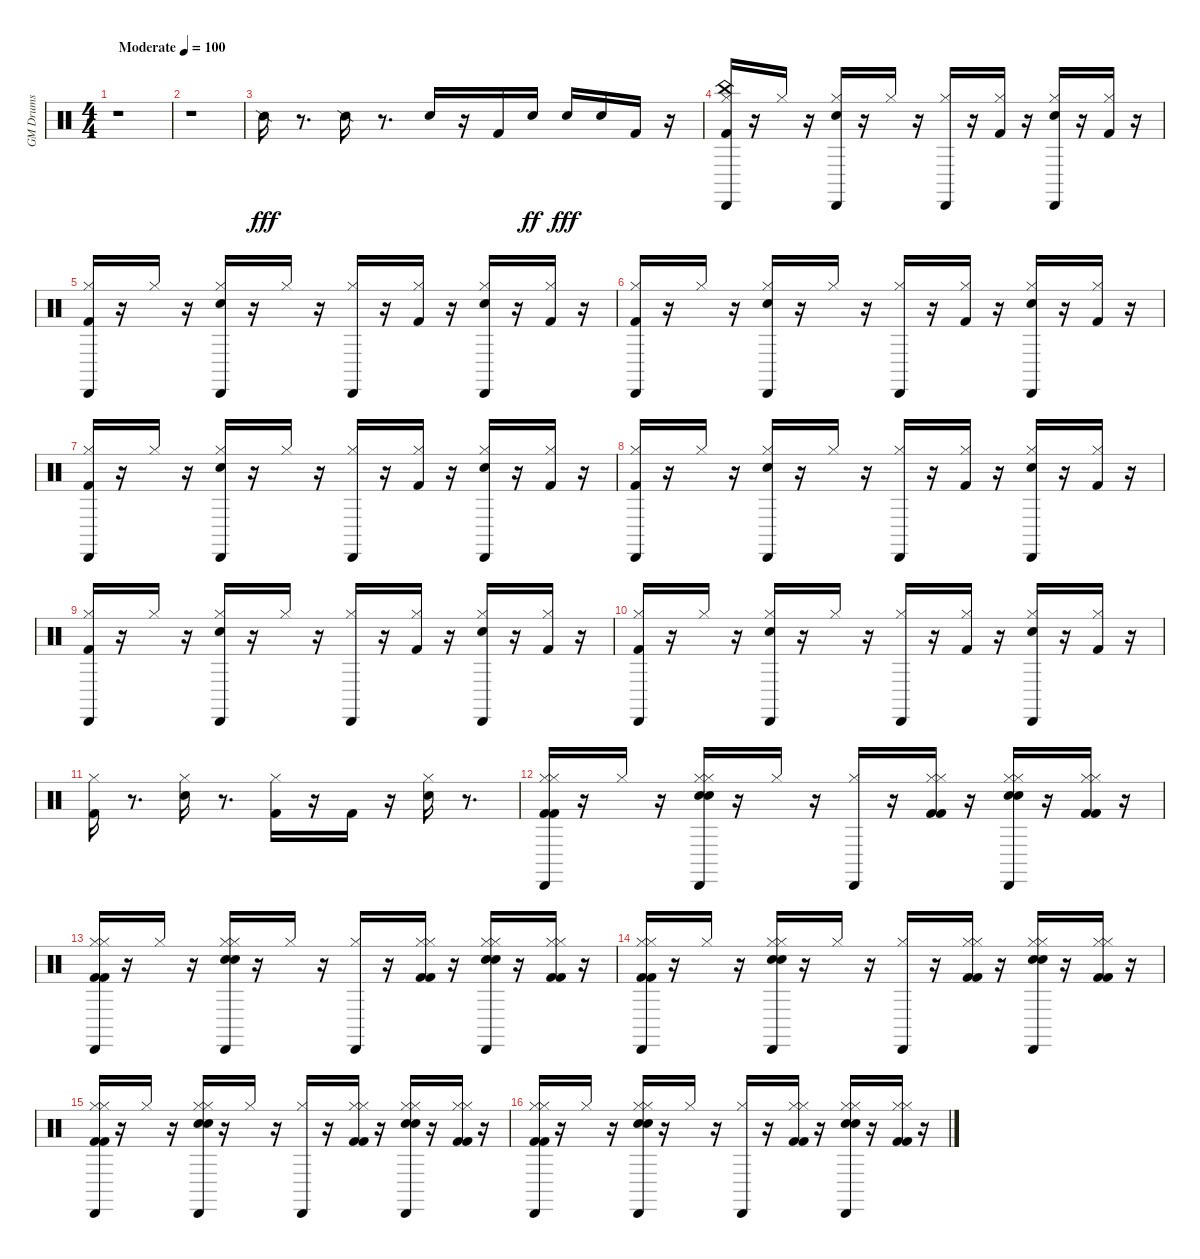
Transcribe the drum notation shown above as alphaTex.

\track ("GM Drums" "GM Drums") {instrument percussion}
\staff {score}
\articulation defaults
\ts (4 4)
\tempo (100 "Moderate")
\clef neutral
\ks c
r.1{dy fff} |
r.1 |
"Snare (side stick) 2".16 r.8{d} "Snare (side stick) 2".16 r.8{d} "Snare (hit) 2".16 r.16 "Kick (hit) 2".16 "Snare (hit) 2".16{dy ff} "Snare (hit) 2".16{dy fff} "Snare (hit) 2".16 "Kick (hit) 2".16 r.16 |
("Kick (hit) 2" "Hi-Hat (closed)" "China (hit)" "Cabasa (hit)").16 r.16 "Hi-Hat (closed)".16 r.16 ("Snare (hit) 2" "Hi-Hat (closed)" "Cabasa (hit)").16 r.16 "Hi-Hat (closed)".16 r.16 ("Hi-Hat (closed)" "Cabasa (hit)").16 r.16 ("Kick (hit) 2" "Hi-Hat (closed)").16 r.16 ("Snare (hit) 2" "Hi-Hat (closed)" "Cabasa (hit)").16 r.16 ("Kick (hit) 2" "Hi-Hat (closed)").16 r.16 |
("Kick (hit) 2" "Hi-Hat (closed)" "Cabasa (hit)").16 r.16 "Hi-Hat (closed)".16 r.16 ("Snare (hit) 2" "Hi-Hat (closed)" "Cabasa (hit)").16 r.16 "Hi-Hat (closed)".16 r.16 ("Hi-Hat (closed)" "Cabasa (hit)").16 r.16 ("Kick (hit) 2" "Hi-Hat (closed)").16 r.16 ("Snare (hit) 2" "Hi-Hat (closed)" "Cabasa (hit)").16 r.16 ("Kick (hit) 2" "Hi-Hat (closed)").16 r.16 |
("Kick (hit) 2" "Hi-Hat (closed)" "Cabasa (hit)").16 r.16 "Hi-Hat (closed)".16 r.16 ("Snare (hit) 2" "Hi-Hat (closed)" "Cabasa (hit)").16 r.16 "Hi-Hat (closed)".16 r.16 ("Hi-Hat (closed)" "Cabasa (hit)").16 r.16 ("Kick (hit) 2" "Hi-Hat (closed)").16 r.16 ("Snare (hit) 2" "Hi-Hat (closed)" "Cabasa (hit)").16 r.16 ("Kick (hit) 2" "Hi-Hat (closed)").16 r.16 |
("Kick (hit) 2" "Hi-Hat (closed)" "Cabasa (hit)").16 r.16 "Hi-Hat (closed)".16 r.16 ("Snare (hit) 2" "Hi-Hat (closed)" "Cabasa (hit)").16 r.16 "Hi-Hat (closed)".16 r.16 ("Hi-Hat (closed)" "Cabasa (hit)").16 r.16 ("Kick (hit) 2" "Hi-Hat (closed)").16 r.16 ("Snare (hit) 2" "Hi-Hat (closed)" "Cabasa (hit)").16 r.16 ("Kick (hit) 2" "Hi-Hat (closed)").16 r.16 |
("Kick (hit) 2" "Hi-Hat (closed)" "Cabasa (hit)").16 r.16 "Hi-Hat (closed)".16 r.16 ("Snare (hit) 2" "Hi-Hat (closed)" "Cabasa (hit)").16 r.16 "Hi-Hat (closed)".16 r.16 ("Hi-Hat (closed)" "Cabasa (hit)").16 r.16 ("Kick (hit) 2" "Hi-Hat (closed)").16 r.16 ("Snare (hit) 2" "Hi-Hat (closed)" "Cabasa (hit)").16 r.16 ("Kick (hit) 2" "Hi-Hat (closed)").16 r.16 |
("Kick (hit) 2" "Hi-Hat (closed)" "Cabasa (hit)").16 r.16 "Hi-Hat (closed)".16 r.16 ("Snare (hit) 2" "Hi-Hat (closed)" "Cabasa (hit)").16 r.16 "Hi-Hat (closed)".16 r.16 ("Hi-Hat (closed)" "Cabasa (hit)").16 r.16 ("Kick (hit) 2" "Hi-Hat (closed)").16 r.16 ("Snare (hit) 2" "Hi-Hat (closed)" "Cabasa (hit)").16 r.16 ("Kick (hit) 2" "Hi-Hat (closed)").16 r.16 |
("Kick (hit) 2" "Hi-Hat (closed)" "Cabasa (hit)").16 r.16 "Hi-Hat (closed)".16 r.16 ("Snare (hit) 2" "Hi-Hat (closed)" "Cabasa (hit)").16 r.16 "Hi-Hat (closed)".16 r.16 ("Hi-Hat (closed)" "Cabasa (hit)").16 r.16 ("Kick (hit) 2" "Hi-Hat (closed)").16 r.16 ("Snare (hit) 2" "Hi-Hat (closed)" "Cabasa (hit)").16 r.16 ("Kick (hit) 2" "Hi-Hat (closed)").16 r.16 |
("Kick (hit) 2" "Hi-Hat (closed)").16 r.8{d} ("Snare (hit) 2" "Hi-Hat (closed)").16 r.8{d} ("Kick (hit) 2" "Hi-Hat (closed)").16 r.16 "Kick (hit) 2".16 r.16 ("Snare (hit) 2" "Hi-Hat (closed)").16 r.8{d} |
("Kick (hit) 2" "Kick (hit) 2" "Hi-Hat (closed)" "Hi-Hat (closed)" "Cabasa (hit)").16 r.16 "Hi-Hat (closed)".16 r.16 ("Snare (hit) 2" "Snare (hit) 2" "Hi-Hat (closed)" "Hi-Hat (closed)" "Cabasa (hit)").16 r.16 "Hi-Hat (closed)".16 r.16 ("Hi-Hat (closed)" "Cabasa (hit)").16 r.16 ("Kick (hit) 2" "Kick (hit) 2" "Hi-Hat (closed)" "Hi-Hat (closed)").16 r.16 ("Snare (hit) 2" "Snare (hit) 2" "Hi-Hat (closed)" "Hi-Hat (closed)" "Cabasa (hit)").16 r.16 ("Kick (hit) 2" "Kick (hit) 2" "Hi-Hat (closed)" "Hi-Hat (closed)").16 r.16 |
("Kick (hit) 2" "Kick (hit) 2" "Hi-Hat (closed)" "Hi-Hat (closed)" "Cabasa (hit)").16 r.16 "Hi-Hat (closed)".16 r.16 ("Snare (hit) 2" "Snare (hit) 2" "Hi-Hat (closed)" "Hi-Hat (closed)" "Cabasa (hit)").16 r.16 "Hi-Hat (closed)".16 r.16 ("Hi-Hat (closed)" "Cabasa (hit)").16 r.16 ("Kick (hit) 2" "Kick (hit) 2" "Hi-Hat (closed)" "Hi-Hat (closed)").16 r.16 ("Snare (hit) 2" "Snare (hit) 2" "Hi-Hat (closed)" "Hi-Hat (closed)" "Cabasa (hit)").16 r.16 ("Kick (hit) 2" "Kick (hit) 2" "Hi-Hat (closed)" "Hi-Hat (closed)").16 r.16 |
("Kick (hit) 2" "Kick (hit) 2" "Hi-Hat (closed)" "Hi-Hat (closed)" "Cabasa (hit)").16 r.16 "Hi-Hat (closed)".16 r.16 ("Snare (hit) 2" "Snare (hit) 2" "Hi-Hat (closed)" "Hi-Hat (closed)" "Cabasa (hit)").16 r.16 "Hi-Hat (closed)".16 r.16 ("Hi-Hat (closed)" "Cabasa (hit)").16 r.16 ("Kick (hit) 2" "Kick (hit) 2" "Hi-Hat (closed)" "Hi-Hat (closed)").16 r.16 ("Snare (hit) 2" "Snare (hit) 2" "Hi-Hat (closed)" "Hi-Hat (closed)" "Cabasa (hit)").16 r.16 ("Kick (hit) 2" "Kick (hit) 2" "Hi-Hat (closed)" "Hi-Hat (closed)").16 r.16 |
("Kick (hit) 2" "Kick (hit) 2" "Hi-Hat (closed)" "Hi-Hat (closed)" "Cabasa (hit)").16 r.16 "Hi-Hat (closed)".16 r.16 ("Snare (hit) 2" "Snare (hit) 2" "Hi-Hat (closed)" "Hi-Hat (closed)" "Cabasa (hit)").16 r.16 "Hi-Hat (closed)".16 r.16 ("Hi-Hat (closed)" "Cabasa (hit)").16 r.16 ("Kick (hit) 2" "Kick (hit) 2" "Hi-Hat (closed)" "Hi-Hat (closed)").16 r.16 ("Snare (hit) 2" "Snare (hit) 2" "Hi-Hat (closed)" "Hi-Hat (closed)" "Cabasa (hit)").16 r.16 ("Kick (hit) 2" "Kick (hit) 2" "Hi-Hat (closed)" "Hi-Hat (closed)").16 r.16 |
("Kick (hit) 2" "Kick (hit) 2" "Hi-Hat (closed)" "Hi-Hat (closed)" "Cabasa (hit)").16 r.16 "Hi-Hat (closed)".16 r.16 ("Snare (hit) 2" "Snare (hit) 2" "Hi-Hat (closed)" "Hi-Hat (closed)" "Cabasa (hit)").16 r.16 "Hi-Hat (closed)".16 r.16 ("Hi-Hat (closed)" "Cabasa (hit)").16 r.16 ("Kick (hit) 2" "Kick (hit) 2" "Hi-Hat (closed)" "Hi-Hat (closed)").16 r.16 ("Snare (hit) 2" "Snare (hit) 2" "Hi-Hat (closed)" "Hi-Hat (closed)" "Cabasa (hit)").16 r.16 ("Kick (hit) 2" "Kick (hit) 2" "Hi-Hat (closed)" "Hi-Hat (closed)").16 r.16
